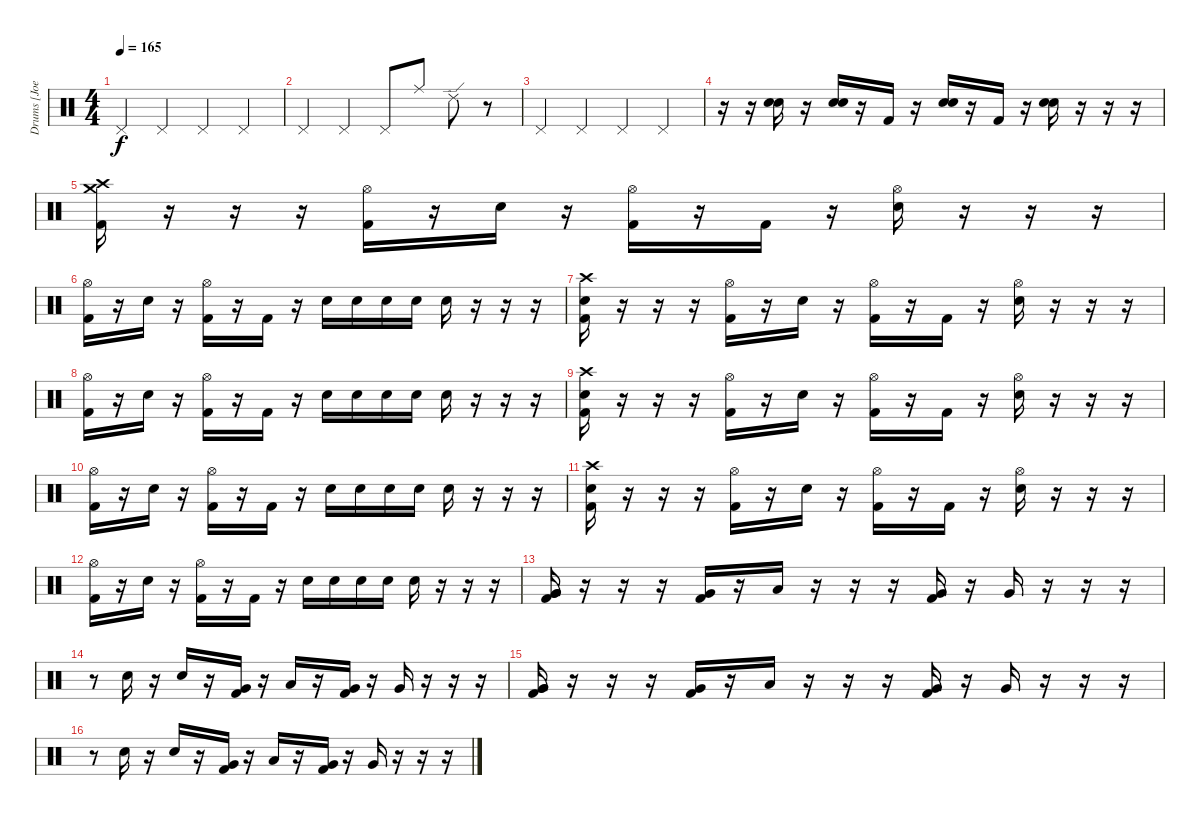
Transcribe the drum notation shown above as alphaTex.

\track ("Drums [Joel Paolucci]" "Drums [Joe") {instrument percussion}
\staff {score}
\articulation defaults
\ts (4 4)
\tempo 165
\clef neutral
\ks c "Pedal Hi-Hat (hit)".4{dy f} "Pedal Hi-Hat (hit)".4 "Pedal Hi-Hat (hit)".4 "Pedal Hi-Hat (hit)".4
|
"Pedal Hi-Hat (hit)".4 "Pedal Hi-Hat (hit)".4 "Pedal Hi-Hat (hit)".8 "Ride (middle)".8 "Ride (edge) 2".8 r.8 |
"Pedal Hi-Hat (hit)".4 "Pedal Hi-Hat (hit)".4 "Pedal Hi-Hat (hit)".4 "Pedal Hi-Hat (hit)".4 |
r.16 r.16 ("Electric Snare (hit)" "Electric Snare (hit)").16 r.16 ("Electric Snare (hit)" "Electric Snare (hit)").16 r.16 "Kick (hit) 2".16 r.16 ("Electric Snare (hit)" "Electric Snare (hit)").16 r.16 "Kick (hit) 2".16 r.16 ("Electric Snare (hit)" "Electric Snare (hit)").16 r.16 r.16 r.16 |
("Crash medium (hit)" "Crash high (hit)" "Kick (hit) 2").16 r.16 r.16 r.16 ("Hi-Hat (open)" "Kick (hit) 2").16 r.16 "Electric Snare (hit)".16 r.16 ("Hi-Hat (open)" "Kick (hit) 2").16 r.16 "Kick (hit) 2".16 r.16 ("Hi-Hat (open)" "Electric Snare (hit)").16 r.16 r.16 r.16 |
("Hi-Hat (open)" "Kick (hit) 2").16 r.16 "Electric Snare (hit)".16 r.16 ("Hi-Hat (open)" "Kick (hit) 2").16 r.16 "Kick (hit) 2".16 r.16 "Electric Snare (hit)".16 "Electric Snare (hit)".16 "Electric Snare (hit)".16 "Electric Snare (hit)".16 "Electric Snare (hit)".16 r.16 r.16 r.16 |
("Crash high (hit)" "Electric Snare (hit)" "Kick (hit) 2").16 r.16 r.16 r.16 ("Hi-Hat (open)" "Kick (hit) 2").16 r.16 "Electric Snare (hit)".16 r.16 ("Hi-Hat (open)" "Kick (hit) 2").16 r.16 "Kick (hit) 2".16 r.16 ("Hi-Hat (open)" "Electric Snare (hit)").16 r.16 r.16 r.16 |
("Hi-Hat (open)" "Kick (hit) 2").16 r.16 "Electric Snare (hit)".16 r.16 ("Hi-Hat (open)" "Kick (hit) 2").16 r.16 "Kick (hit) 2".16 r.16 "Electric Snare (hit)".16 "Electric Snare (hit)".16 "Electric Snare (hit)".16 "Electric Snare (hit)".16 "Electric Snare (hit)".16 r.16 r.16 r.16 |
("Crash high (hit)" "Electric Snare (hit)" "Kick (hit) 2").16 r.16 r.16 r.16 ("Hi-Hat (open)" "Kick (hit) 2").16 r.16 "Electric Snare (hit)".16 r.16 ("Hi-Hat (open)" "Kick (hit) 2").16 r.16 "Kick (hit) 2".16 r.16 ("Hi-Hat (open)" "Electric Snare (hit)").16 r.16 r.16 r.16 |
("Hi-Hat (open)" "Kick (hit) 2").16 r.16 "Electric Snare (hit)".16 r.16 ("Hi-Hat (open)" "Kick (hit) 2").16 r.16 "Kick (hit) 2".16 r.16 "Electric Snare (hit)".16 "Electric Snare (hit)".16 "Electric Snare (hit)".16 "Electric Snare (hit)".16 "Electric Snare (hit)".16 r.16 r.16 r.16 |
("Crash high (hit)" "Electric Snare (hit)" "Kick (hit) 2").16 r.16 r.16 r.16 ("Hi-Hat (open)" "Kick (hit) 2").16 r.16 "Electric Snare (hit)".16 r.16 ("Hi-Hat (open)" "Kick (hit) 2").16 r.16 "Kick (hit) 2".16 r.16 ("Hi-Hat (open)" "Electric Snare (hit)").16 r.16 r.16 r.16 |
("Hi-Hat (open)" "Kick (hit) 2").16 r.16 "Electric Snare (hit)".16 r.16 ("Hi-Hat (open)" "Kick (hit) 2").16 r.16 "Kick (hit) 2".16 r.16 "Electric Snare (hit)".16 "Electric Snare (hit)".16 "Electric Snare (hit)".16 "Electric Snare (hit)".16 "Electric Snare (hit)".16 r.16 r.16 r.16 |
("Very Low Tom (hit)" "Very Low Tom (hit)" "Kick (hit) 2").16 r.16 r.16 r.16 ("Very Low Tom (hit)" "Kick (hit) 2").16 r.16 "Low Tom (hit)".16 r.16 r.16 r.16 ("Very Low Tom (hit)" "Kick (hit) 2").16 r.16 "Very Low Tom (hit)".16 r.16 r.16 r.16 |
r.8 "Electric Snare (hit)".16 r.16 "Electric Snare (hit)".16 r.16 ("Very Low Tom (hit)" "Kick (hit) 2").16 r.16 "Low Tom (hit)".16 r.16 ("Very Low Tom (hit)" "Kick (hit) 2").16 r.16 "Very Low Tom (hit)".16 r.16 r.16 r.16 |
("Very Low Tom (hit)" "Very Low Tom (hit)" "Kick (hit) 2").16 r.16 r.16 r.16 ("Very Low Tom (hit)" "Kick (hit) 2").16 r.16 "Low Tom (hit)".16 r.16 r.16 r.16 ("Very Low Tom (hit)" "Kick (hit) 2").16 r.16 "Very Low Tom (hit)".16 r.16 r.16 r.16 |
r.8 "Electric Snare (hit)".16 r.16 "Electric Snare (hit)".16 r.16 ("Very Low Tom (hit)" "Kick (hit) 2").16 r.16 "Low Tom (hit)".16 r.16 ("Very Low Tom (hit)" "Kick (hit) 2").16 r.16 "Very Low Tom (hit)".16 r.16 r.16 r.16
